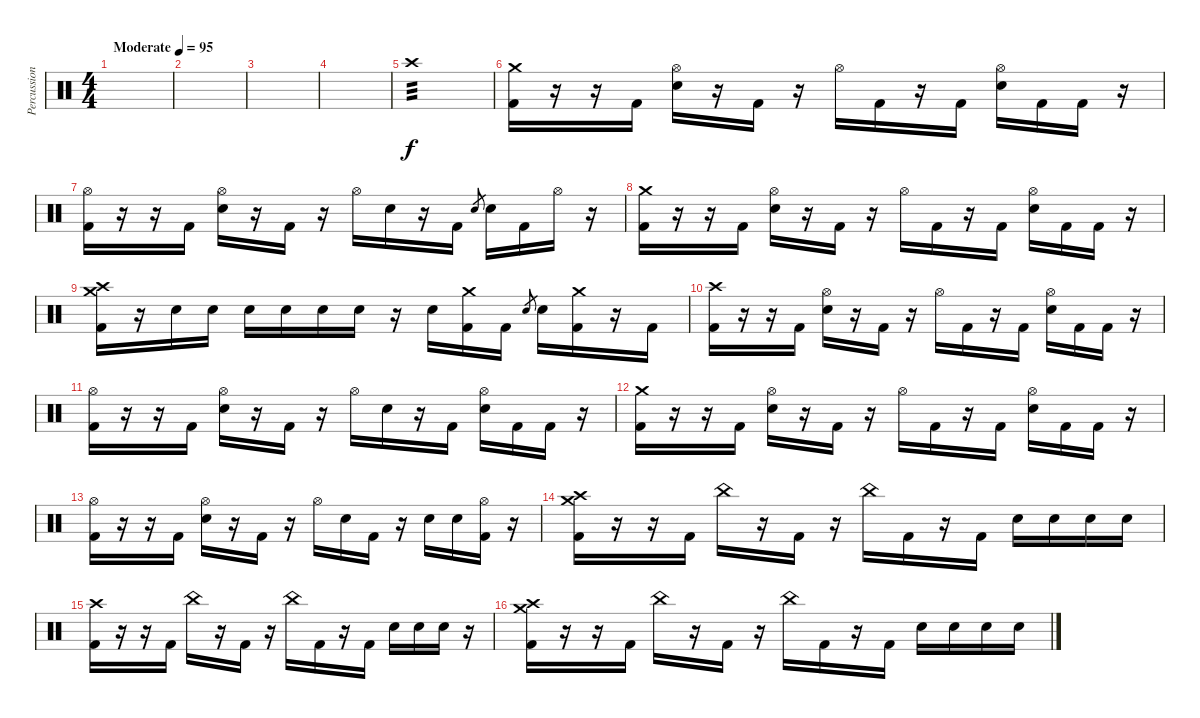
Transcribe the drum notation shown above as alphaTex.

\track ("Percussion" "Percussion") {instrument percussion}
\staff {score}
\articulation defaults
\ts (4 4)
\tempo (95 "Moderate")
\clef neutral
\ks c
|
|
|
|
"Crash high (hit)".1{tp 3 volume 16} |
("Crash medium (hit)" "Kick (hit) 2").16 r.16 r.16 "Kick (hit) 2".16 ("Hi-Hat (open)" "Electric Snare (hit)").16 r.16 "Kick (hit) 2".16 r.16 "Hi-Hat (open)".16 "Kick (hit) 2".16 r.16 "Kick (hit) 2".16 ("Hi-Hat (open)" "Electric Snare (hit)").16 "Kick (hit) 2".16 "Kick (hit) 2".16 r.16 |
("Hi-Hat (open)" "Kick (hit) 2").16 r.16 r.16 "Kick (hit) 2".16 ("Hi-Hat (open)" "Electric Snare (hit)").16 r.16 "Kick (hit) 2".16 r.16 "Hi-Hat (open)".16 "Electric Snare (hit)".16 r.16 "Kick (hit) 2".16 "Electric Snare (hit)".8{gr} "Electric Snare (hit)".16 "Kick (hit) 2".16 "Hi-Hat (open)".16 r.16 |
("Crash medium (hit)" "Kick (hit) 2").16 r.16 r.16 "Kick (hit) 2".16 ("Hi-Hat (open)" "Electric Snare (hit)").16 r.16 "Kick (hit) 2".16 r.16 "Hi-Hat (open)".16 "Kick (hit) 2".16 r.16 "Kick (hit) 2".16 ("Hi-Hat (open)" "Electric Snare (hit)").16 "Kick (hit) 2".16 "Kick (hit) 2".16 r.16 |
("Crash medium (hit)" "Crash high (hit)" "Kick (hit) 2").16 r.16 "Electric Snare (hit)".16 "Electric Snare (hit)".16 "Electric Snare (hit)".16 "Electric Snare (hit)".16 "Electric Snare (hit)".16 "Electric Snare (hit)".16 r.16 "Electric Snare (hit)".16 ("Crash medium (hit)" "Kick (hit) 2").16 "Kick (hit) 2".16 "Electric Snare (hit)".8{gr} "Electric Snare (hit)".16 ("Crash medium (hit)" "Kick (hit) 2").16 r.16 "Kick (hit) 2".16 |
("Crash high (hit)" "Kick (hit) 2").16 r.16 r.16 "Kick (hit) 2".16 ("Hi-Hat (open)" "Electric Snare (hit)").16 r.16 "Kick (hit) 2".16 r.16 "Hi-Hat (open)".16 "Kick (hit) 2".16 r.16 "Kick (hit) 2".16 ("Hi-Hat (open)" "Electric Snare (hit)").16 "Kick (hit) 2".16 "Kick (hit) 2".16 r.16 |
("Hi-Hat (open)" "Kick (hit) 2").16 r.16 r.16 "Kick (hit) 2".16 ("Hi-Hat (open)" "Electric Snare (hit)").16 r.16 "Kick (hit) 2".16 r.16 "Hi-Hat (open)".16 "Electric Snare (hit)".16 r.16 "Kick (hit) 2".16 ("Hi-Hat (open)" "Electric Snare (hit)").16 "Kick (hit) 2".16 "Kick (hit) 2".16 r.16 |
("Crash medium (hit)" "Kick (hit) 2").16 r.16 r.16 "Kick (hit) 2".16 ("Hi-Hat (open)" "Electric Snare (hit)").16 r.16 "Kick (hit) 2".16 r.16 "Hi-Hat (open)".16 "Kick (hit) 2".16 r.16 "Kick (hit) 2".16 ("Hi-Hat (open)" "Electric Snare (hit)").16 "Kick (hit) 2".16 "Kick (hit) 2".16 r.16 |
("Hi-Hat (open)" "Kick (hit) 2").16 r.16 r.16 "Kick (hit) 2".16 ("Hi-Hat (open)" "Electric Snare (hit)").16 r.16 "Kick (hit) 2".16 r.16 "Hi-Hat (open)".16 "Electric Snare (hit)".16 "Kick (hit) 2".16 r.16 "Electric Snare (hit)".16 "Electric Snare (hit)".16 ("Hi-Hat (open)" "Kick (hit) 2").16 r.16 |
("Crash medium (hit)" "Crash high (hit)" "Kick (hit) 2").16 r.16 r.16 "Kick (hit) 2".16 "China (hit)".16 r.16 "Kick (hit) 2".16 r.16 "China (hit)".16 "Kick (hit) 2".16 r.16 "Kick (hit) 2".16 "Electric Snare (hit)".16 "Electric Snare (hit)".16 "Electric Snare (hit)".16 "Electric Snare (hit)".16 |
("Crash high (hit)" "Kick (hit) 2").16 r.16 r.16 "Kick (hit) 2".16 "China (hit)".16 r.16 "Kick (hit) 2".16 r.16 "China (hit)".16 "Kick (hit) 2".16 r.16 "Kick (hit) 2".16 "Electric Snare (hit)".16 "Electric Snare (hit)".16 "Electric Snare (hit)".16 r.16 |
("Crash medium (hit)" "Crash high (hit)" "Kick (hit) 2").16 r.16 r.16 "Kick (hit) 2".16 "China (hit)".16 r.16 "Kick (hit) 2".16 r.16 "China (hit)".16 "Kick (hit) 2".16 r.16 "Kick (hit) 2".16 "Electric Snare (hit)".16 "Electric Snare (hit)".16 "Electric Snare (hit)".16 "Electric Snare (hit)".16
